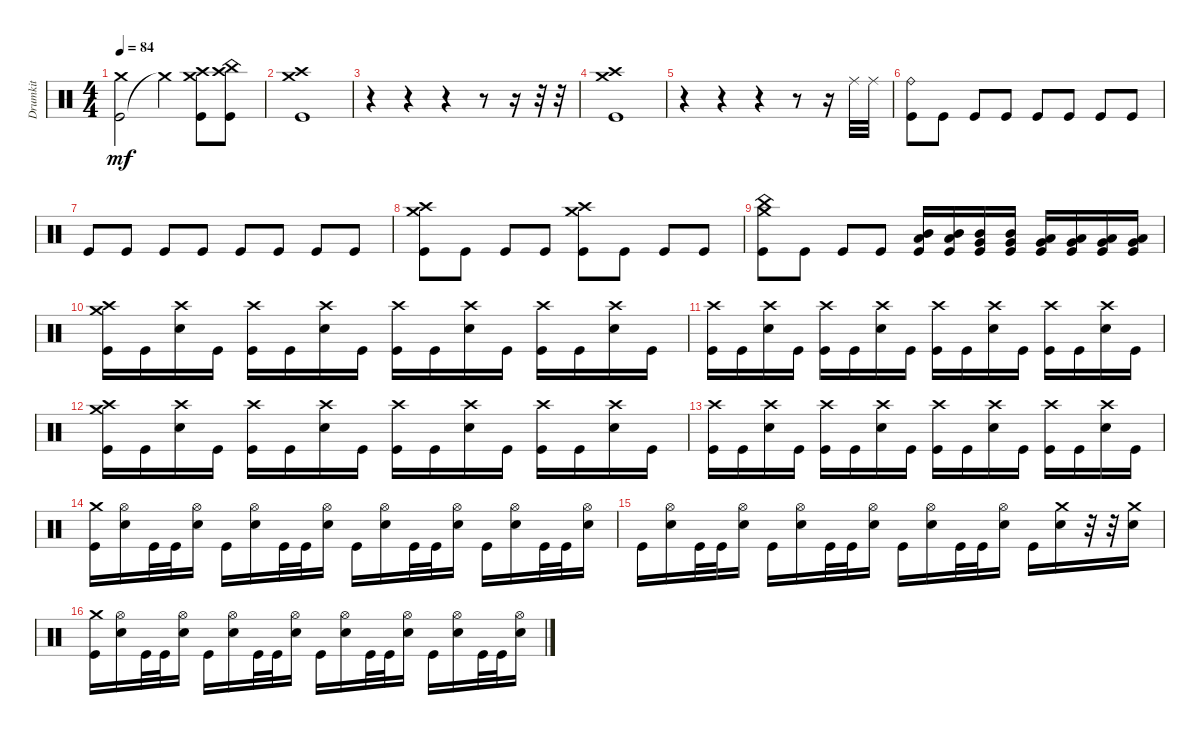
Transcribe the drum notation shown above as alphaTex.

\track ("Drumkit" "Drumkit") {instrument percussion}
\staff {score}
\articulation defaults
\ts (4 4)
\tempo 84
\clef neutral
\ks c
("Kick (hit)" "Crash medium (hit)").2{dy mf} "Crash medium (hit)"{t}.4 ("Kick (hit)" "Crash high (hit)" "Crash medium (hit)").8 ("Kick (hit)" "Crash high (hit)" "China (hit)").8 |
("Kick (hit)" "Crash high (hit)" "Crash medium (hit)").1 |
r.4 r.4 r.4 r.8 r.16 r.32 r.32 |
("Kick (hit)" "Crash medium (hit)" "Crash high (hit)").1 |
r.4 r.4 r.4 r.8 r.16 "Ride (middle)".32 "Ride (middle)".32 |
("Ride (bell)" "Kick (hit)").8 "Kick (hit)".8 "Kick (hit)".8 "Kick (hit)".8 "Kick (hit)".8 "Kick (hit)".8 "Kick (hit)".8 "Kick (hit)".8 |
"Kick (hit)".8 "Kick (hit)".8 "Kick (hit)".8 "Kick (hit)".8 "Kick (hit)".8 "Kick (hit)".8 "Kick (hit)".8 "Kick (hit)".8 |
("Kick (hit)" "Crash high (hit)" "Crash medium (hit)").8 "Kick (hit)".8 "Kick (hit)".8 "Kick (hit)".8 ("Kick (hit)" "Crash medium (hit)" "Crash high (hit)").8 "Kick (hit)".8 "Kick (hit)".8 "Kick (hit)".8 |
("Kick (hit)" "China (hit)" "Crash medium (hit)").8 "Kick (hit)".8 "Kick (hit)".8 "Kick (hit)".8 ("Kick (hit)" "Mid Tom (hit)" "Low Tom (hit)").16 ("Kick (hit)" "Mid Tom (hit)" "Low Tom (hit)").16 ("Kick (hit)" "Mid Tom (hit)" "Very Low Tom (hit)").16 ("Kick (hit)" "Mid Tom (hit)" "Very Low Tom (hit)").16 ("Kick (hit)" "Low Tom (hit)" "Very Low Tom (hit)").16 ("Kick (hit)" "Low Tom (hit)" "Very Low Tom (hit)").16 ("Kick (hit)" "Very Low Tom (hit)" "Low Floor Tom (hit)").16 ("Kick (hit)" "Very Low Tom (hit)" "Low Floor Tom (hit)").16 |
("Kick (hit)" "Crash high (hit)" "Crash medium (hit)").16 "Kick (hit)".16 ("Snare (hit) 2" "Crash high (hit)").16 "Kick (hit)".16 ("Kick (hit)" "Crash high (hit)").16 "Kick (hit)".16 ("Snare (hit) 2" "Crash high (hit)").16 "Kick (hit)".16 ("Kick (hit)" "Crash high (hit)").16 "Kick (hit)".16 ("Snare (hit) 2" "Crash high (hit)").16 "Kick (hit)".16 ("Kick (hit)" "Crash high (hit)").16 "Kick (hit)".16 ("Snare (hit) 2" "Crash high (hit)").16 "Kick (hit)".16 |
("Kick (hit)" "Crash high (hit)").16 "Kick (hit)".16 ("Snare (hit) 2" "Crash high (hit)").16 "Kick (hit)".16 ("Kick (hit)" "Crash high (hit)").16 "Kick (hit)".16 ("Snare (hit) 2" "Crash high (hit)").16 "Kick (hit)".16 ("Kick (hit)" "Crash high (hit)").16 "Kick (hit)".16 ("Snare (hit) 2" "Crash high (hit)").16 "Kick (hit)".16 ("Kick (hit)" "Crash high (hit)").16 "Kick (hit)".16 ("Snare (hit) 2" "Crash high (hit)").16 "Kick (hit)".16 |
("Kick (hit)" "Crash high (hit)" "Crash medium (hit)").16 "Kick (hit)".16 ("Snare (hit) 2" "Crash high (hit)").16 "Kick (hit)".16 ("Kick (hit)" "Crash high (hit)").16 "Kick (hit)".16 ("Snare (hit) 2" "Crash high (hit)").16 "Kick (hit)".16 ("Kick (hit)" "Crash high (hit)").16 "Kick (hit)".16 ("Snare (hit) 2" "Crash high (hit)").16 "Kick (hit)".16 ("Kick (hit)" "Crash high (hit)").16 "Kick (hit)".16 ("Snare (hit) 2" "Crash high (hit)").16 "Kick (hit)".16 |
("Kick (hit)" "Crash high (hit)").16 "Kick (hit)".16 ("Snare (hit) 2" "Crash high (hit)").16 "Kick (hit)".16 ("Kick (hit)" "Crash high (hit)").16 "Kick (hit)".16 ("Snare (hit) 2" "Crash high (hit)").16 "Kick (hit)".16 ("Kick (hit)" "Crash high (hit)").16 "Kick (hit)".16 ("Snare (hit) 2" "Crash high (hit)").16 "Kick (hit)".16 ("Kick (hit)" "Crash high (hit)").16 "Kick (hit)".16 ("Snare (hit) 2" "Crash high (hit)").16 "Kick (hit)".16 |
("Kick (hit)" "Crash medium (hit)").16 ("Snare (hit) 2" "Hi-Hat (open)").16 "Kick (hit)".32 "Kick (hit)".32 ("Snare (hit) 2" "Hi-Hat (open)").16 "Kick (hit)".16 ("Snare (hit) 2" "Hi-Hat (open)").16 "Kick (hit)".32 "Kick (hit)".32 ("Snare (hit) 2" "Hi-Hat (open)").16 "Kick (hit)".16 ("Snare (hit) 2" "Hi-Hat (open)").16 "Kick (hit)".32 "Kick (hit)".32 ("Snare (hit) 2" "Hi-Hat (open)").16 "Kick (hit)".16 ("Snare (hit) 2" "Hi-Hat (open)").16 "Kick (hit)".32 "Kick (hit)".32 ("Snare (hit) 2" "Hi-Hat (open)").16 |
"Kick (hit)".16 ("Snare (hit) 2" "Hi-Hat (open)").16 "Kick (hit)".32 "Kick (hit)".32 ("Snare (hit) 2" "Hi-Hat (open)").16 "Kick (hit)".16 ("Snare (hit) 2" "Hi-Hat (open)").16 "Kick (hit)".32 "Kick (hit)".32 ("Snare (hit) 2" "Hi-Hat (open)").16 "Kick (hit)".16 ("Snare (hit) 2" "Hi-Hat (open)").16 "Kick (hit)".32 "Kick (hit)".32 ("Snare (hit) 2" "Hi-Hat (open)").16 "Kick (hit)".16 ("Snare (hit) 2" "Crash medium (hit)").16 r.32 r.32 ("Snare (hit) 2" "Crash medium (hit)").16 |
("Kick (hit)" "Crash medium (hit)").16 ("Snare (hit) 2" "Hi-Hat (open)").16 "Kick (hit)".32 "Kick (hit)".32 ("Snare (hit) 2" "Hi-Hat (open)").16 "Kick (hit)".16 ("Snare (hit) 2" "Hi-Hat (open)").16 "Kick (hit)".32 "Kick (hit)".32 ("Snare (hit) 2" "Hi-Hat (open)").16 "Kick (hit)".16 ("Snare (hit) 2" "Hi-Hat (open)").16 "Kick (hit)".32 "Kick (hit)".32 ("Snare (hit) 2" "Hi-Hat (open)").16 "Kick (hit)".16 ("Snare (hit) 2" "Hi-Hat (open)").16 "Kick (hit)".32 "Kick (hit)".32 ("Snare (hit) 2" "Hi-Hat (open)").16
